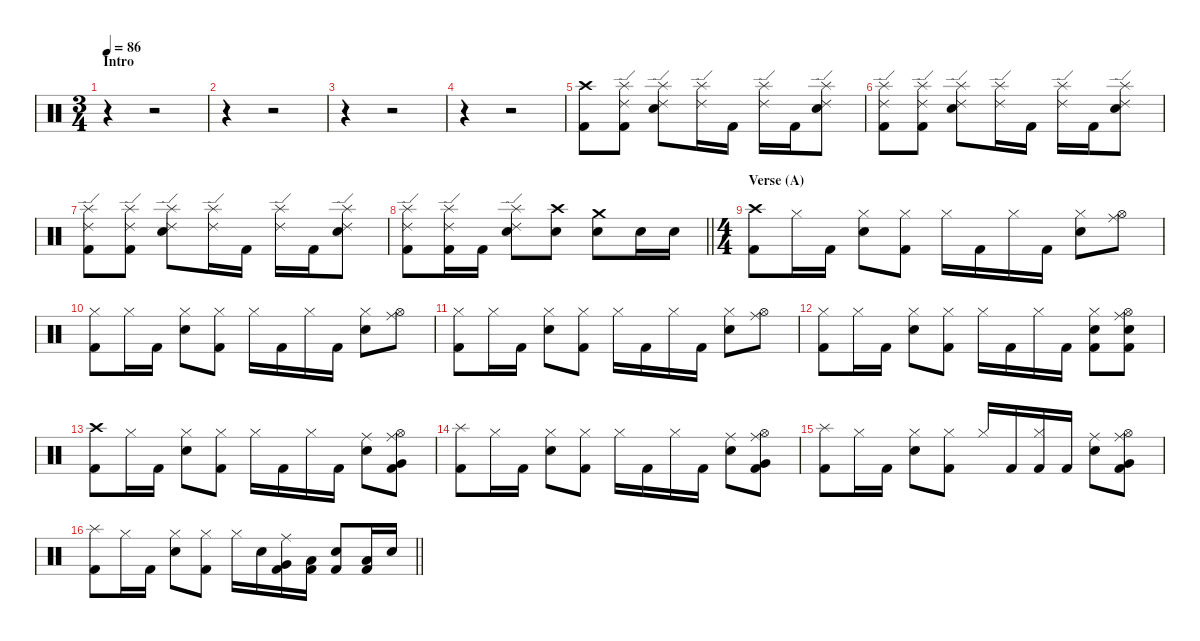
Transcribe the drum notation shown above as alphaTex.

\defaultSystemsLayout 4
\hideDynamics
\bracketExtendMode nobrackets
\singleTrackTrackNamePolicy hidden
\multiTrackTrackNamePolicy hidden
\otherSystemsTrackNameOrientation horizontal
\track ("Drums" "drm.") {instrument percussion}
\staff {score}
\articulation defaults
\ts (3 4)
\beaming (8 2 2 2)
\section ("" "Intro")
\tempo 86
\clef neutral
\ks c
r.4{dy f beam Down} r.2{beam Down} |
r.4{beam Down} r.2{beam Down} |
r.4{beam Down} r.2{beam Down} |
r.4{beam Down} r.2{beam Down} |
("Crash high (hit)" "Kick (hit) 2").8{beam Down} ("Splash (hit)" "Ride (edge) 2" "Kick (hit) 2").8{beam Down} ("Splash (hit)" "Ride (edge) 2" "Snare (hit) 2").8{beam Down} ("Splash (hit)" "Ride (edge) 2").16{beam Down} "Kick (hit) 2".16{beam Down} ("Splash (hit)" "Ride (edge) 2").16{beam Down} "Kick (hit) 2".16{beam Down} ("Splash (hit)" "Ride (edge) 2" "Snare (hit) 2").8{beam Down} |
("Splash (hit)" "Ride (edge) 2" "Kick (hit) 2").8{beam Down} ("Splash (hit)" "Ride (edge) 2" "Kick (hit) 2").8{beam Down} ("Splash (hit)" "Ride (edge) 2" "Snare (hit) 2").8{beam Down} ("Splash (hit)" "Ride (edge) 2").16{beam Down} "Kick (hit) 2".16{beam Down} ("Splash (hit)" "Ride (edge) 2").16{beam Down} "Kick (hit) 2".16{beam Down} ("Splash (hit)" "Ride (edge) 2" "Snare (hit) 2").8{beam Down} |
("Splash (hit)" "Ride (edge) 2" "Kick (hit) 2").8{beam Down} ("Splash (hit)" "Ride (edge) 2" "Kick (hit) 2").8{beam Down} ("Splash (hit)" "Ride (edge) 2" "Snare (hit) 2").8{beam Down} ("Splash (hit)" "Ride (edge) 2").16{beam Down} "Kick (hit) 2".16{beam Down} ("Splash (hit)" "Ride (edge) 2").16{beam Down} "Kick (hit) 2".16{beam Down} ("Splash (hit)" "Ride (edge) 2" "Snare (hit) 2").8{beam Down} |
\barLineRight lightlight
("Splash (hit)" "Ride (edge) 2" "Kick (hit) 2").8{beam Down} ("Splash (hit)" "Ride (edge) 2" "Kick (hit) 2").16{beam Down} "Kick (hit) 2".16{beam Down} ("Splash (hit)" "Ride (edge) 2" "Snare (hit) 2").8{beam Down} ("Crash high (hit)" "Snare (hit) 2").8{beam Down} ("Crash medium (hit)" "Snare (hit) 2").8{beam Down} "Snare (hit) 2".16{beam Down} "Snare (hit) 2".16{beam Down} |
\ts (4 4)
\beaming (8 2 2 2 2)
\section ("" "Verse (A)")
("Crash high (hit)" "Kick (hit) 2").8{beam Down} "Hi-Hat (closed)".16{beam Down} "Kick (hit) 2".16{beam Down} ("Hi-Hat (closed)" "Snare (hit) 2").8{beam Down} ("Hi-Hat (closed)" "Kick (hit) 2").8{beam Down} "Hi-Hat (closed)".16{beam Down} "Kick (hit) 2".16{beam Down} "Hi-Hat (closed)".16{beam Down} "Kick (hit) 2".16{beam Down} ("Hi-Hat (closed)" "Snare (hit) 2").8{beam Down} ("Ride (middle)" "Hi-Hat (open)").8{beam Down} |
("Hi-Hat (closed)" "Kick (hit) 2").8{beam Down} "Hi-Hat (closed)".16{beam Down} "Kick (hit) 2".16{beam Down} ("Hi-Hat (closed)" "Snare (hit) 2").8{beam Down} ("Hi-Hat (closed)" "Kick (hit) 2").8{beam Down} "Hi-Hat (closed)".16{beam Down} "Kick (hit) 2".16{beam Down} "Hi-Hat (closed)".16{beam Down} "Kick (hit) 2".16{beam Down} ("Hi-Hat (closed)" "Snare (hit) 2").8{beam Down} ("Ride (middle)" "Hi-Hat (open)").8{beam Down} |
("Hi-Hat (closed)" "Kick (hit) 2").8{beam Down} "Hi-Hat (closed)".16{beam Down} "Kick (hit) 2".16{beam Down} ("Hi-Hat (closed)" "Snare (hit) 2").8{beam Down} ("Hi-Hat (closed)" "Kick (hit) 2").8{beam Down} "Hi-Hat (closed)".16{beam Down} "Kick (hit) 2".16{beam Down} "Hi-Hat (closed)".16{beam Down} "Kick (hit) 2".16{beam Down} ("Hi-Hat (closed)" "Snare (hit) 2").8{beam Down} ("Ride (middle)" "Hi-Hat (open)").8{beam Down} |
("Hi-Hat (closed)" "Kick (hit) 2").8{beam Down} "Hi-Hat (closed)".16{beam Down} "Kick (hit) 2".16{beam Down} ("Hi-Hat (closed)" "Snare (hit) 2").8{beam Down} ("Hi-Hat (closed)" "Kick (hit) 2").8{beam Down} "Hi-Hat (closed)".16{beam Down} "Kick (hit) 2".16{beam Down} "Hi-Hat (closed)".16{beam Down} "Kick (hit) 2".16{beam Down} ("Hi-Hat (closed)" "Snare (hit) 2" "Kick (hit) 2").8{beam Down} ("Ride (middle)" "Hi-Hat (open)" "Snare (hit) 2" "Kick (hit) 2").8{beam Down} |
("Crash high (hit)" "Kick (hit) 2").8{beam Down} "Hi-Hat (closed)".16{beam Down} "Kick (hit) 2".16{beam Down} ("Hi-Hat (closed)" "Snare (hit) 2").8{beam Down} ("Hi-Hat (closed)" "Kick (hit) 2").8{beam Down} "Hi-Hat (closed)".16{beam Down} "Kick (hit) 2".16{beam Down} "Hi-Hat (closed)".16{beam Down} "Kick (hit) 2".16{beam Down} ("Ride (middle)" "Snare (hit) 2").8{beam Down} ("Ride (middle)" "Hi-Hat (open)" "Very Low Tom (hit)" "Kick (hit) 2").8{beam Down} |
("Splash (hit)" "Kick (hit) 2").8{beam Down} "Hi-Hat (closed)".16{beam Down} "Kick (hit) 2".16{beam Down} ("Hi-Hat (closed)" "Snare (hit) 2").8{beam Down} ("Hi-Hat (closed)" "Kick (hit) 2").8{beam Down} "Hi-Hat (closed)".16{beam Down} "Kick (hit) 2".16{beam Down} "Hi-Hat (closed)".16{beam Down} "Kick (hit) 2".16{beam Down} ("Ride (middle)" "Snare (hit) 2").8{beam Down} ("Ride (middle)" "Hi-Hat (open)" "Very Low Tom (hit)" "Kick (hit) 2").8{beam Down} |
("Splash (hit)" "Kick (hit) 2").8{beam Down} "Hi-Hat (closed)".16{beam Down} "Kick (hit) 2".16{beam Down} ("Hi-Hat (closed)" "Snare (hit) 2").8{beam Down} ("Hi-Hat (closed)" "Kick (hit) 2").8{beam Down} "Hi-Hat (closed)".16{beam Up} "Kick (hit) 2".16{beam Up} ("Hi-Hat (closed)" "Kick (hit) 2").16{beam Up} "Kick (hit) 2".16{beam Up} ("Ride (middle)" "Snare (hit) 2").8{beam Down} ("Ride (middle)" "Hi-Hat (open)" "Very Low Tom (hit)" "Kick (hit) 2").8{beam Down} |
\barLineRight lightlight
("Splash (hit)" "Kick (hit) 2").8{beam Down} "Hi-Hat (closed)".16{beam Down} "Kick (hit) 2".16{beam Down} ("Hi-Hat (closed)" "Snare (hit) 2").8{beam Down} ("Hi-Hat (closed)" "Kick (hit) 2").8{beam Down} "Hi-Hat (closed)".16{beam Down} "Snare (hit) 2".16{beam Down} ("Ride (middle)" "Very Low Tom (hit)" "Kick (hit) 2").16{beam Down} ("Low Floor Tom (hit)" "Kick (hit) 2").16{beam Down} ("Snare (hit) 2" "Kick (hit) 2").8{beam Up} ("Low Floor Tom (hit)" "Kick (hit) 2").16{beam Up} "Snare (hit) 2".16{beam Up}
